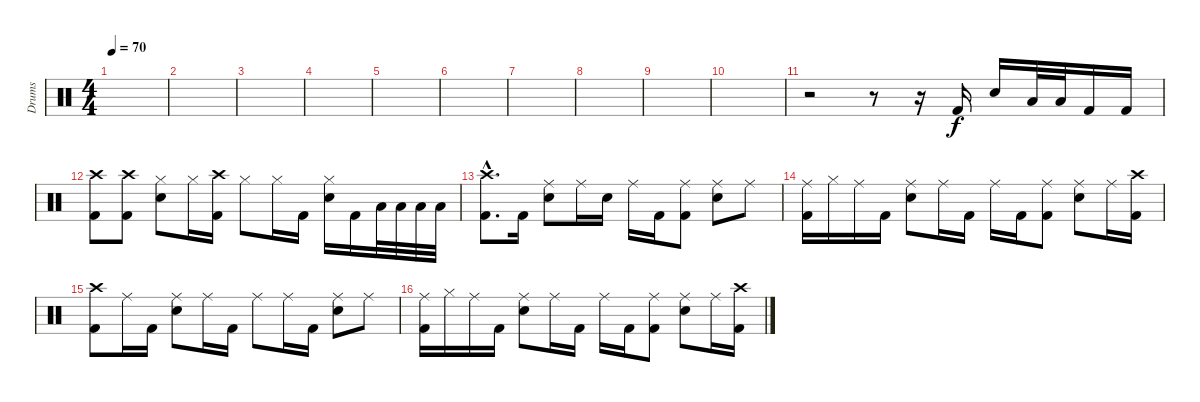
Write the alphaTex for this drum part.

\track ("Drums" "Drums") {instrument percussion}
\staff {score}
\articulation defaults
\ts (4 4)
\tempo 70
\clef neutral
\ks c
|
|
|
|
|
|
|
|
|
|
r.2 r.8 r.16 "Kick (hit) 2".16 "Electric Snare (hit)".16 "Low Tom (hit)".32 "Low Tom (hit)".32 "Kick (hit) 2".16 "Kick (hit) 2".16 |
("Crash high (hit)" "Kick (hit) 2").8 ("Crash high (hit)" "Kick (hit) 2").8 ("Hi-Hat (closed)" "Electric Snare (hit)").8 "Hi-Hat (closed)".16 ("Crash high (hit)" "Kick (hit) 2").16 "Hi-Hat (closed)".8 "Hi-Hat (closed)".16 "Kick (hit) 2".16 ("Hi-Hat (closed)" "Electric Snare (hit)").16 "Kick (hit) 2".16 "Low Tom (hit)".32 "Low Tom (hit)".32 "Low Floor Tom (hit)".32 "Low Floor Tom (hit)".32 |
("Crash high (hit)"{hac} "Kick (hit) 2"{hac}).8{d} "Kick (hit) 2".16 ("Ride (middle)" "Electric Snare (hit)").8 "Ride (middle)".16 "Electric Snare (hit)".16 "Ride (middle)".16 "Kick (hit) 2".16 ("Ride (middle)" "Kick (hit) 2").8 ("Ride (middle)" "Electric Snare (hit)").8 "Ride (middle)".8 |
("Ride (middle)" "Kick (hit) 2").16 "Hi-Hat (closed)".16 "Ride (middle)".16 "Kick (hit) 2".16 ("Ride (middle)" "Electric Snare (hit)").8 "Ride (middle)".16 "Kick (hit) 2".16 "Ride (middle)".16 "Kick (hit) 2".16 ("Ride (middle)" "Kick (hit) 2").8 ("Ride (middle)" "Electric Snare (hit)").8 "Ride (middle)".16 ("Crash high (hit)" "Kick (hit) 2").16 |
("Crash high (hit)" "Kick (hit) 2").8 "Ride (middle)".16 "Kick (hit) 2".16 ("Ride (middle)" "Electric Snare (hit)").8 "Ride (middle)".16 "Kick (hit) 2".16 "Ride (middle)".8 "Ride (middle)".16 "Kick (hit) 2".16 ("Ride (middle)" "Electric Snare (hit)").8 "Ride (middle)".8 |
("Ride (middle)" "Kick (hit) 2").16 "Hi-Hat (closed)".16 "Ride (middle)".16 "Kick (hit) 2".16 ("Ride (middle)" "Electric Snare (hit)").8 "Ride (middle)".16 "Kick (hit) 2".16 "Ride (middle)".16 "Kick (hit) 2".16 ("Ride (middle)" "Kick (hit) 2").8 ("Ride (middle)" "Electric Snare (hit)").8 "Ride (middle)".16 ("Crash high (hit)" "Kick (hit) 2").16
